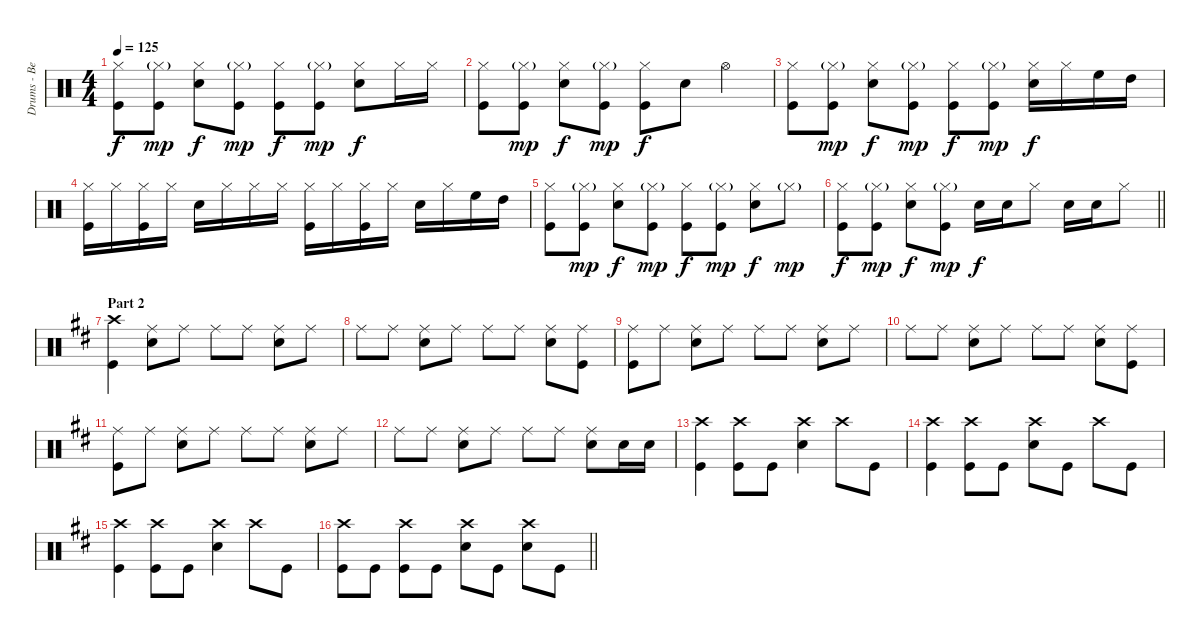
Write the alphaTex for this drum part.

\track ("Drums - Ben Johnston" "Drums - Be") {instrument percussion}
\staff {score}
\articulation defaults
\ts (4 4)
\tempo 125
\clef neutral
\ks c
("Hi-Hat (closed)" "Kick (hit)").8{dy f} ("Hi-Hat (closed)"{g} "Kick (hit)").8{dy mp} ("Hi-Hat (closed)" "Snare (hit) 2").8{dy f} ("Hi-Hat (closed)"{g} "Kick (hit)").8{dy mp} ("Hi-Hat (closed)" "Kick (hit)").8{dy f} ("Hi-Hat (closed)"{g} "Kick (hit)").8{dy mp} ("Hi-Hat (closed)" "Snare (hit) 2").8{dy f} "Hi-Hat (closed)".16 "Hi-Hat (closed)".16 |
("Hi-Hat (closed)" "Kick (hit)").8 ("Hi-Hat (closed)"{g} "Kick (hit)").8{dy mp} ("Hi-Hat (closed)" "Snare (hit) 2").8{dy f} ("Hi-Hat (closed)"{g} "Kick (hit)").8{dy mp} ("Hi-Hat (closed)" "Kick (hit)").8{dy f} "Snare (hit) 2".8 "Hi-Hat (open)".4 |
("Hi-Hat (closed)" "Kick (hit)").8 ("Hi-Hat (closed)"{g} "Kick (hit)").8{dy mp} ("Hi-Hat (closed)" "Snare (hit) 2").8{dy f} ("Hi-Hat (closed)"{g} "Kick (hit)").8{dy mp} ("Hi-Hat (closed)" "Kick (hit)").8{dy f} ("Hi-Hat (closed)"{g} "Kick (hit)").8{dy mp} ("Hi-Hat (closed)" "Snare (hit) 2").16{dy f} "Hi-Hat (closed)".16 "High Floor Tom (hit)".16 "High Tom (hit)".16 |
("Hi-Hat (closed)" "Kick (hit)").16 "Hi-Hat (closed)".16 ("Hi-Hat (closed)" "Kick (hit)").16 "Hi-Hat (closed)".16 "Snare (hit) 2".16 "Hi-Hat (closed)".16 "Hi-Hat (closed)".16 "Hi-Hat (closed)".16 ("Hi-Hat (closed)" "Kick (hit)").16 "Hi-Hat (closed)".16 ("Hi-Hat (closed)" "Kick (hit)").16 "Hi-Hat (closed)".16 "Snare (hit) 2".16 "Hi-Hat (closed)".16 "High Floor Tom (hit)".16 "High Tom (hit)".16 |
("Hi-Hat (closed)" "Kick (hit)").8 ("Hi-Hat (closed)"{g} "Kick (hit)").8{dy mp} ("Hi-Hat (closed)" "Snare (hit) 2").8{dy f} ("Hi-Hat (closed)"{g} "Kick (hit)").8{dy mp} ("Hi-Hat (closed)" "Kick (hit)").8{dy f} ("Hi-Hat (closed)"{g} "Kick (hit)").8{dy mp} ("Hi-Hat (closed)" "Snare (hit) 2").8{dy f} "Hi-Hat (closed)"{g}.8{dy mp} |
\barLineRight lightlight
("Hi-Hat (closed)" "Kick (hit)").8{dy f} ("Hi-Hat (closed)"{g} "Kick (hit)").8{dy mp} ("Hi-Hat (closed)" "Snare (hit) 2").8{dy f} ("Hi-Hat (closed)"{g} "Kick (hit)").8{dy mp} "Snare (hit) 2".16{dy f} "Snare (hit) 2".16 "Hi-Hat (closed)".8 "Snare (hit) 2".16 "Snare (hit) 2".16 "Hi-Hat (closed)".8 |
\section ("" "Part 2")
\ks d
("Crash high (hit)" "Kick (hit)").4 ("Ride (middle)" "Snare (hit) 2").8 "Ride (middle)".8 "Ride (middle)".8 "Ride (middle)".8 ("Ride (middle)" "Snare (hit) 2").8 "Ride (middle)".8 |
"Ride (middle)".8 "Ride (middle)".8 ("Ride (middle)" "Snare (hit) 2").8 "Ride (middle)".8 "Ride (middle)".8 "Ride (middle)".8 ("Ride (middle)" "Snare (hit) 2").8 ("Ride (middle)" "Kick (hit)").8 |
("Ride (middle)" "Kick (hit)").8 "Ride (middle)".8 ("Ride (middle)" "Snare (hit) 2").8 "Ride (middle)".8 "Ride (middle)".8 "Ride (middle)".8 ("Ride (middle)" "Snare (hit) 2").8 "Ride (middle)".8 |
"Ride (middle)".8 "Ride (middle)".8 ("Ride (middle)" "Snare (hit) 2").8 "Ride (middle)".8 "Ride (middle)".8 "Ride (middle)".8 ("Ride (middle)" "Snare (hit) 2").8 ("Ride (middle)" "Kick (hit)").8 |
("Ride (middle)" "Kick (hit)").8 "Ride (middle)".8 ("Ride (middle)" "Snare (hit) 2").8 "Ride (middle)".8 "Ride (middle)".8 "Ride (middle)".8 ("Ride (middle)" "Snare (hit) 2").8 "Ride (middle)".8 |
"Ride (middle)".8 "Ride (middle)".8 ("Ride (middle)" "Snare (hit) 2").8 "Ride (middle)".8 "Ride (middle)".8 "Ride (middle)".8 ("Ride (middle)" "Snare (hit) 2").8 "Snare (hit) 2".16 "Snare (hit) 2".16 |
("Crash high (hit)" "Kick (hit)").4 ("Crash high (hit)" "Kick (hit)").8 "Kick (hit)".8 ("Crash high (hit)" "Snare (hit) 2").4 "Crash high (hit)".8 "Kick (hit)".8 |
("Crash high (hit)" "Kick (hit)").4 ("Crash high (hit)" "Kick (hit)").8 "Kick (hit)".8 ("Crash high (hit)" "Snare (hit) 2").8 "Kick (hit)".8 "Crash high (hit)".8 "Kick (hit)".8 |
("Crash high (hit)" "Kick (hit)").4 ("Crash high (hit)" "Kick (hit)").8 "Kick (hit)".8 ("Crash high (hit)" "Snare (hit) 2").4 "Crash high (hit)".8 "Kick (hit)".8 |
\barLineRight lightlight
("Crash high (hit)" "Kick (hit)").8 "Kick (hit)".8 ("Crash high (hit)" "Kick (hit)").8 "Kick (hit)".8 ("Crash high (hit)" "Snare (hit) 2").8 "Kick (hit)".8 ("Crash high (hit)" "Snare (hit) 2").8 "Kick (hit)".8
